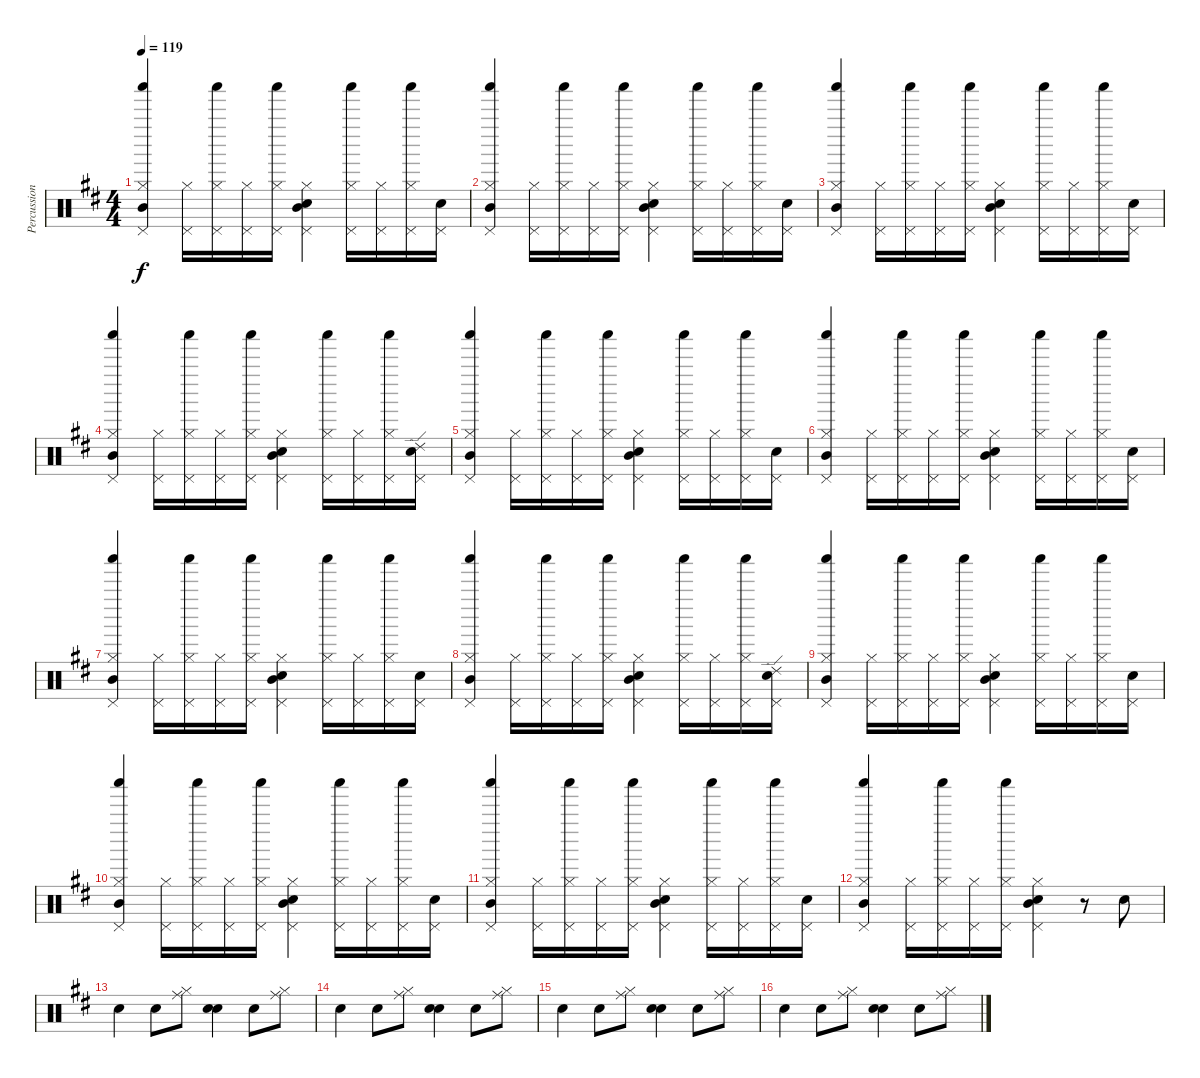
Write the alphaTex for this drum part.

\track ("Percussion" "Percussion") {instrument percussion}
\staff {score}
\articulation defaults
\ts (4 4)
\tempo 119
\clef neutral
\ks d
("Mid Tom (hit)" "Shaker (hit)" "Hi-Hat (closed)" "Pedal Hi-Hat (hit)").4{dy f} ("Hi-Hat (closed)" "Pedal Hi-Hat (hit)").16 ("Shaker (hit)" "Hi-Hat (closed)" "Pedal Hi-Hat (hit)").16 ("Hi-Hat (closed)" "Pedal Hi-Hat (hit)").16 ("Shaker (hit)" "Hi-Hat (closed)" "Pedal Hi-Hat (hit)").16 ("Pedal Hi-Hat (hit)" "Electric Snare (hit)" "Mid Tom (hit)" "Hi-Hat (closed)").4 ("Shaker (hit)" "Hi-Hat (closed)" "Pedal Hi-Hat (hit)").16 ("Hi-Hat (closed)" "Pedal Hi-Hat (hit)").16 ("Shaker (hit)" "Hi-Hat (closed)" "Pedal Hi-Hat (hit)").16 ("Snare (hit)" "Pedal Hi-Hat (hit)").16 |
("Mid Tom (hit)" "Shaker (hit)" "Hi-Hat (closed)" "Pedal Hi-Hat (hit)").4 ("Hi-Hat (closed)" "Pedal Hi-Hat (hit)").16 ("Shaker (hit)" "Hi-Hat (closed)" "Pedal Hi-Hat (hit)").16 ("Hi-Hat (closed)" "Pedal Hi-Hat (hit)").16 ("Shaker (hit)" "Hi-Hat (closed)" "Pedal Hi-Hat (hit)").16 ("Pedal Hi-Hat (hit)" "Electric Snare (hit)" "Mid Tom (hit)" "Hi-Hat (closed)").4 ("Shaker (hit)" "Hi-Hat (closed)" "Pedal Hi-Hat (hit)").16 ("Hi-Hat (closed)" "Pedal Hi-Hat (hit)").16 ("Shaker (hit)" "Hi-Hat (closed)" "Pedal Hi-Hat (hit)").16 ("Snare (hit)" "Pedal Hi-Hat (hit)").16 |
("Mid Tom (hit)" "Shaker (hit)" "Hi-Hat (closed)" "Pedal Hi-Hat (hit)").4 ("Hi-Hat (closed)" "Pedal Hi-Hat (hit)").16 ("Shaker (hit)" "Hi-Hat (closed)" "Pedal Hi-Hat (hit)").16 ("Hi-Hat (closed)" "Pedal Hi-Hat (hit)").16 ("Shaker (hit)" "Hi-Hat (closed)" "Pedal Hi-Hat (hit)").16 ("Pedal Hi-Hat (hit)" "Electric Snare (hit)" "Mid Tom (hit)" "Hi-Hat (closed)").4 ("Shaker (hit)" "Hi-Hat (closed)" "Pedal Hi-Hat (hit)").16 ("Hi-Hat (closed)" "Pedal Hi-Hat (hit)").16 ("Shaker (hit)" "Hi-Hat (closed)" "Pedal Hi-Hat (hit)").16 ("Snare (hit)" "Pedal Hi-Hat (hit)").16 |
("Mid Tom (hit)" "Shaker (hit)" "Hi-Hat (closed)" "Pedal Hi-Hat (hit)").4 ("Hi-Hat (closed)" "Pedal Hi-Hat (hit)").16 ("Shaker (hit)" "Hi-Hat (closed)" "Pedal Hi-Hat (hit)").16 ("Hi-Hat (closed)" "Pedal Hi-Hat (hit)").16 ("Shaker (hit)" "Hi-Hat (closed)" "Pedal Hi-Hat (hit)").16 ("Pedal Hi-Hat (hit)" "Electric Snare (hit)" "Mid Tom (hit)" "Hi-Hat (closed)").4 ("Shaker (hit)" "Hi-Hat (closed)" "Pedal Hi-Hat (hit)").16 ("Hi-Hat (closed)" "Pedal Hi-Hat (hit)").16 ("Shaker (hit)" "Hi-Hat (closed)" "Pedal Hi-Hat (hit)").16 ("Ride (edge) 2" "Snare (hit)" "Pedal Hi-Hat (hit)").16 |
("Mid Tom (hit)" "Shaker (hit)" "Hi-Hat (closed)" "Pedal Hi-Hat (hit)").4 ("Hi-Hat (closed)" "Pedal Hi-Hat (hit)").16 ("Shaker (hit)" "Hi-Hat (closed)" "Pedal Hi-Hat (hit)").16 ("Hi-Hat (closed)" "Pedal Hi-Hat (hit)").16 ("Shaker (hit)" "Hi-Hat (closed)" "Pedal Hi-Hat (hit)").16 ("Pedal Hi-Hat (hit)" "Electric Snare (hit)" "Mid Tom (hit)" "Hi-Hat (closed)").4 ("Shaker (hit)" "Hi-Hat (closed)" "Pedal Hi-Hat (hit)").16 ("Hi-Hat (closed)" "Pedal Hi-Hat (hit)").16 ("Shaker (hit)" "Hi-Hat (closed)" "Pedal Hi-Hat (hit)").16 ("Snare (hit)" "Pedal Hi-Hat (hit)").16 |
("Mid Tom (hit)" "Shaker (hit)" "Hi-Hat (closed)" "Pedal Hi-Hat (hit)").4 ("Hi-Hat (closed)" "Pedal Hi-Hat (hit)").16 ("Shaker (hit)" "Hi-Hat (closed)" "Pedal Hi-Hat (hit)").16 ("Hi-Hat (closed)" "Pedal Hi-Hat (hit)").16 ("Shaker (hit)" "Hi-Hat (closed)" "Pedal Hi-Hat (hit)").16 ("Pedal Hi-Hat (hit)" "Electric Snare (hit)" "Mid Tom (hit)" "Hi-Hat (closed)").4 ("Shaker (hit)" "Hi-Hat (closed)" "Pedal Hi-Hat (hit)").16 ("Hi-Hat (closed)" "Pedal Hi-Hat (hit)").16 ("Shaker (hit)" "Hi-Hat (closed)" "Pedal Hi-Hat (hit)").16 ("Snare (hit)" "Pedal Hi-Hat (hit)").16 |
("Mid Tom (hit)" "Shaker (hit)" "Hi-Hat (closed)" "Pedal Hi-Hat (hit)").4 ("Hi-Hat (closed)" "Pedal Hi-Hat (hit)").16 ("Shaker (hit)" "Hi-Hat (closed)" "Pedal Hi-Hat (hit)").16 ("Hi-Hat (closed)" "Pedal Hi-Hat (hit)").16 ("Shaker (hit)" "Hi-Hat (closed)" "Pedal Hi-Hat (hit)").16 ("Pedal Hi-Hat (hit)" "Electric Snare (hit)" "Mid Tom (hit)" "Hi-Hat (closed)").4 ("Shaker (hit)" "Hi-Hat (closed)" "Pedal Hi-Hat (hit)").16 ("Hi-Hat (closed)" "Pedal Hi-Hat (hit)").16 ("Shaker (hit)" "Hi-Hat (closed)" "Pedal Hi-Hat (hit)").16 ("Snare (hit)" "Pedal Hi-Hat (hit)").16 |
("Mid Tom (hit)" "Shaker (hit)" "Hi-Hat (closed)" "Pedal Hi-Hat (hit)").4 ("Hi-Hat (closed)" "Pedal Hi-Hat (hit)").16 ("Shaker (hit)" "Hi-Hat (closed)" "Pedal Hi-Hat (hit)").16 ("Hi-Hat (closed)" "Pedal Hi-Hat (hit)").16 ("Shaker (hit)" "Hi-Hat (closed)" "Pedal Hi-Hat (hit)").16 ("Pedal Hi-Hat (hit)" "Electric Snare (hit)" "Mid Tom (hit)" "Hi-Hat (closed)").4 ("Shaker (hit)" "Hi-Hat (closed)" "Pedal Hi-Hat (hit)").16 ("Hi-Hat (closed)" "Pedal Hi-Hat (hit)").16 ("Shaker (hit)" "Hi-Hat (closed)" "Pedal Hi-Hat (hit)").16 ("Ride (edge) 2" "Snare (hit)" "Pedal Hi-Hat (hit)").16 |
("Mid Tom (hit)" "Shaker (hit)" "Hi-Hat (closed)" "Pedal Hi-Hat (hit)").4 ("Hi-Hat (closed)" "Pedal Hi-Hat (hit)").16 ("Shaker (hit)" "Hi-Hat (closed)" "Pedal Hi-Hat (hit)").16 ("Hi-Hat (closed)" "Pedal Hi-Hat (hit)").16 ("Shaker (hit)" "Hi-Hat (closed)" "Pedal Hi-Hat (hit)").16 ("Pedal Hi-Hat (hit)" "Electric Snare (hit)" "Mid Tom (hit)" "Hi-Hat (closed)").4 ("Shaker (hit)" "Hi-Hat (closed)" "Pedal Hi-Hat (hit)").16 ("Hi-Hat (closed)" "Pedal Hi-Hat (hit)").16 ("Shaker (hit)" "Hi-Hat (closed)" "Pedal Hi-Hat (hit)").16 ("Snare (hit)" "Pedal Hi-Hat (hit)").16 |
("Mid Tom (hit)" "Shaker (hit)" "Hi-Hat (closed)" "Pedal Hi-Hat (hit)").4 ("Hi-Hat (closed)" "Pedal Hi-Hat (hit)").16 ("Shaker (hit)" "Hi-Hat (closed)" "Pedal Hi-Hat (hit)").16 ("Hi-Hat (closed)" "Pedal Hi-Hat (hit)").16 ("Shaker (hit)" "Hi-Hat (closed)" "Pedal Hi-Hat (hit)").16 ("Pedal Hi-Hat (hit)" "Electric Snare (hit)" "Mid Tom (hit)" "Hi-Hat (closed)").4 ("Shaker (hit)" "Hi-Hat (closed)" "Pedal Hi-Hat (hit)").16 ("Hi-Hat (closed)" "Pedal Hi-Hat (hit)").16 ("Shaker (hit)" "Hi-Hat (closed)" "Pedal Hi-Hat (hit)").16 ("Snare (hit)" "Pedal Hi-Hat (hit)").16 |
("Mid Tom (hit)" "Shaker (hit)" "Hi-Hat (closed)" "Pedal Hi-Hat (hit)").4 ("Hi-Hat (closed)" "Pedal Hi-Hat (hit)").16 ("Shaker (hit)" "Hi-Hat (closed)" "Pedal Hi-Hat (hit)").16 ("Hi-Hat (closed)" "Pedal Hi-Hat (hit)").16 ("Shaker (hit)" "Hi-Hat (closed)" "Pedal Hi-Hat (hit)").16 ("Pedal Hi-Hat (hit)" "Electric Snare (hit)" "Mid Tom (hit)" "Hi-Hat (closed)").4 ("Shaker (hit)" "Hi-Hat (closed)" "Pedal Hi-Hat (hit)").16 ("Hi-Hat (closed)" "Pedal Hi-Hat (hit)").16 ("Shaker (hit)" "Hi-Hat (closed)" "Pedal Hi-Hat (hit)").16 ("Snare (hit)" "Pedal Hi-Hat (hit)").16 |
("Mid Tom (hit)" "Shaker (hit)" "Hi-Hat (closed)" "Pedal Hi-Hat (hit)").4 ("Hi-Hat (closed)" "Pedal Hi-Hat (hit)").16 ("Shaker (hit)" "Hi-Hat (closed)" "Pedal Hi-Hat (hit)").16 ("Hi-Hat (closed)" "Pedal Hi-Hat (hit)").16 ("Shaker (hit)" "Hi-Hat (closed)" "Pedal Hi-Hat (hit)").16 ("Pedal Hi-Hat (hit)" "Electric Snare (hit)" "Mid Tom (hit)" "Hi-Hat (closed)").4 r.8 "Electric Snare (hit)".8 |
"Electric Snare (hit)".4 "Electric Snare (hit)".8 ("Hi-Hat (closed)" "Ride (middle)").8 ("Electric Snare (hit)" "Electric Snare (hit)").4 "Electric Snare (hit)".8 ("Ride (middle)" "Hi-Hat (closed)").8 |
"Electric Snare (hit)".4 "Electric Snare (hit)".8 ("Hi-Hat (closed)" "Ride (middle)").8 ("Electric Snare (hit)" "Electric Snare (hit)").4 "Electric Snare (hit)".8 ("Ride (middle)" "Hi-Hat (closed)").8 |
"Electric Snare (hit)".4 "Electric Snare (hit)".8 ("Hi-Hat (closed)" "Ride (middle)").8 ("Electric Snare (hit)" "Electric Snare (hit)").4 "Electric Snare (hit)".8 ("Ride (middle)" "Hi-Hat (closed)").8 |
"Electric Snare (hit)".4 "Electric Snare (hit)".8 ("Hi-Hat (closed)" "Ride (middle)").8 ("Electric Snare (hit)" "Electric Snare (hit)").4 "Electric Snare (hit)".8 ("Ride (middle)" "Hi-Hat (closed)").8
